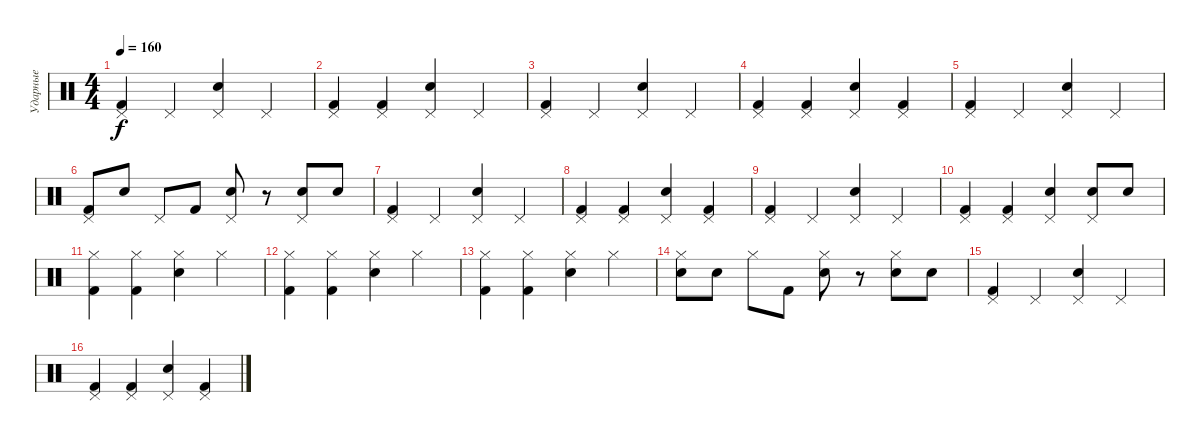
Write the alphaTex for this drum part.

\track ("Ударные" "Ударные") {instrument percussion}
\staff {score}
\articulation defaults
\ts (4 4)
\tempo 160
\clef neutral
\ks c
("Pedal Hi-Hat (hit)" "Kick (hit) 2").4{dy f} "Pedal Hi-Hat (hit)".4 ("Electric Snare (hit)" "Pedal Hi-Hat (hit)").4 "Pedal Hi-Hat (hit)".4 |
("Pedal Hi-Hat (hit)" "Kick (hit) 2").4 ("Pedal Hi-Hat (hit)" "Kick (hit) 2").4 ("Electric Snare (hit)" "Pedal Hi-Hat (hit)").4 "Pedal Hi-Hat (hit)".4 |
("Pedal Hi-Hat (hit)" "Kick (hit) 2").4 "Pedal Hi-Hat (hit)".4 ("Electric Snare (hit)" "Pedal Hi-Hat (hit)").4 "Pedal Hi-Hat (hit)".4 |
("Pedal Hi-Hat (hit)" "Kick (hit) 2").4 ("Pedal Hi-Hat (hit)" "Kick (hit) 2").4 ("Electric Snare (hit)" "Pedal Hi-Hat (hit)").4 ("Pedal Hi-Hat (hit)" "Kick (hit) 2").4 |
("Pedal Hi-Hat (hit)" "Kick (hit) 2").4 "Pedal Hi-Hat (hit)".4 ("Electric Snare (hit)" "Pedal Hi-Hat (hit)").4 "Pedal Hi-Hat (hit)".4 |
("Pedal Hi-Hat (hit)" "Kick (hit) 2").8 "Electric Snare (hit)".8 "Pedal Hi-Hat (hit)".8 "Kick (hit) 2".8 ("Electric Snare (hit)" "Pedal Hi-Hat (hit)").8 r.8 ("Electric Snare (hit)" "Pedal Hi-Hat (hit)").8 "Electric Snare (hit)".8 |
("Pedal Hi-Hat (hit)" "Kick (hit) 2").4 "Pedal Hi-Hat (hit)".4 ("Electric Snare (hit)" "Pedal Hi-Hat (hit)").4 "Pedal Hi-Hat (hit)".4 |
("Pedal Hi-Hat (hit)" "Kick (hit) 2").4 ("Pedal Hi-Hat (hit)" "Kick (hit) 2").4 ("Electric Snare (hit)" "Pedal Hi-Hat (hit)").4 ("Pedal Hi-Hat (hit)" "Kick (hit) 2").4 |
("Pedal Hi-Hat (hit)" "Kick (hit) 2").4 "Pedal Hi-Hat (hit)".4 ("Electric Snare (hit)" "Pedal Hi-Hat (hit)").4 "Pedal Hi-Hat (hit)".4 |
("Pedal Hi-Hat (hit)" "Kick (hit) 2").4 ("Pedal Hi-Hat (hit)" "Kick (hit) 2").4 ("Electric Snare (hit)" "Pedal Hi-Hat (hit)").4 ("Electric Snare (hit)" "Pedal Hi-Hat (hit)").8 "Electric Snare (hit)".8 |
("Hi-Hat (closed)" "Kick (hit) 2").4 ("Hi-Hat (closed)" "Kick (hit) 2").4 ("Electric Snare (hit)" "Hi-Hat (closed)").4 "Hi-Hat (closed)".4 |
("Hi-Hat (closed)" "Kick (hit) 2").4 ("Hi-Hat (closed)" "Kick (hit) 2").4 ("Electric Snare (hit)" "Hi-Hat (closed)").4 "Hi-Hat (closed)".4 |
("Hi-Hat (closed)" "Kick (hit) 2").4 ("Hi-Hat (closed)" "Kick (hit) 2").4 ("Electric Snare (hit)" "Hi-Hat (closed)").4 "Hi-Hat (closed)".4 |
("Electric Snare (hit)" "Hi-Hat (closed)").8 "Electric Snare (hit)".8 "Hi-Hat (closed)".8 "Kick (hit) 2".8 ("Electric Snare (hit)" "Hi-Hat (closed)").8 r.8 ("Electric Snare (hit)" "Hi-Hat (closed)").8 "Electric Snare (hit)".8 |
("Pedal Hi-Hat (hit)" "Kick (hit) 2").4 "Pedal Hi-Hat (hit)".4 ("Electric Snare (hit)" "Pedal Hi-Hat (hit)").4 "Pedal Hi-Hat (hit)".4 |
("Pedal Hi-Hat (hit)" "Kick (hit) 2").4 ("Pedal Hi-Hat (hit)" "Kick (hit) 2").4 ("Electric Snare (hit)" "Pedal Hi-Hat (hit)").4 ("Pedal Hi-Hat (hit)" "Kick (hit) 2").4
